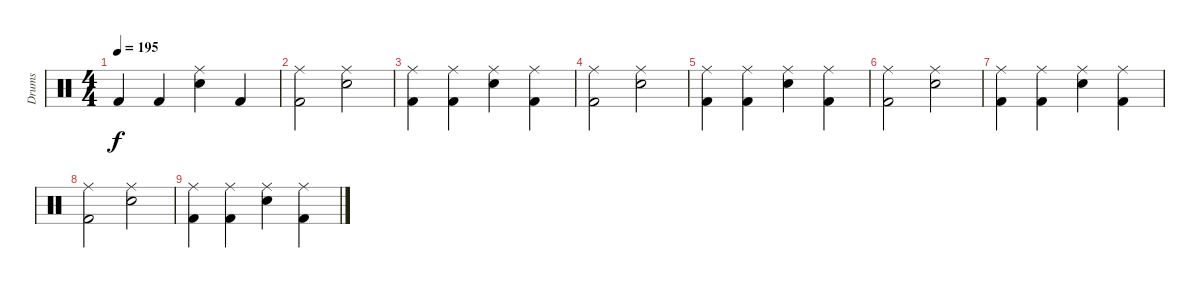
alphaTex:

\track ("Drums" "Drums") {instrument percussion}
\staff {score}
\articulation defaults
\ts (4 4)
\tempo 195
\clef neutral
\ks c "Kick (hit) 2".4{dy f} "Kick (hit) 2".4
("Ride (middle)" "Snare (hit) 2").4 "Kick (hit) 2".4 |
("Ride (middle)" "Kick (hit) 2").2 ("Ride (middle)" "Snare (hit) 2").2 |
("Ride (middle)" "Kick (hit) 2").4 ("Ride (middle)" "Kick (hit) 2").4 ("Ride (middle)" "Snare (hit) 2").4 ("Ride (middle)" "Kick (hit) 2").4 |
("Ride (middle)" "Kick (hit) 2").2 ("Ride (middle)" "Snare (hit) 2").2 |
("Ride (middle)" "Kick (hit) 2").4 ("Ride (middle)" "Kick (hit) 2").4 ("Ride (middle)" "Snare (hit) 2").4 ("Ride (middle)" "Kick (hit) 2").4 |
("Ride (middle)" "Kick (hit) 2").2 ("Ride (middle)" "Snare (hit) 2").2 |
("Ride (middle)" "Kick (hit) 2").4 ("Ride (middle)" "Kick (hit) 2").4 ("Ride (middle)" "Snare (hit) 2").4 ("Ride (middle)" "Kick (hit) 2").4 |
("Ride (middle)" "Kick (hit) 2").2 ("Ride (middle)" "Snare (hit) 2").2 |
("Ride (middle)" "Kick (hit) 2").4 ("Ride (middle)" "Kick (hit) 2").4 ("Ride (middle)" "Snare (hit) 2").4 ("Ride (middle)" "Kick (hit) 2").4
